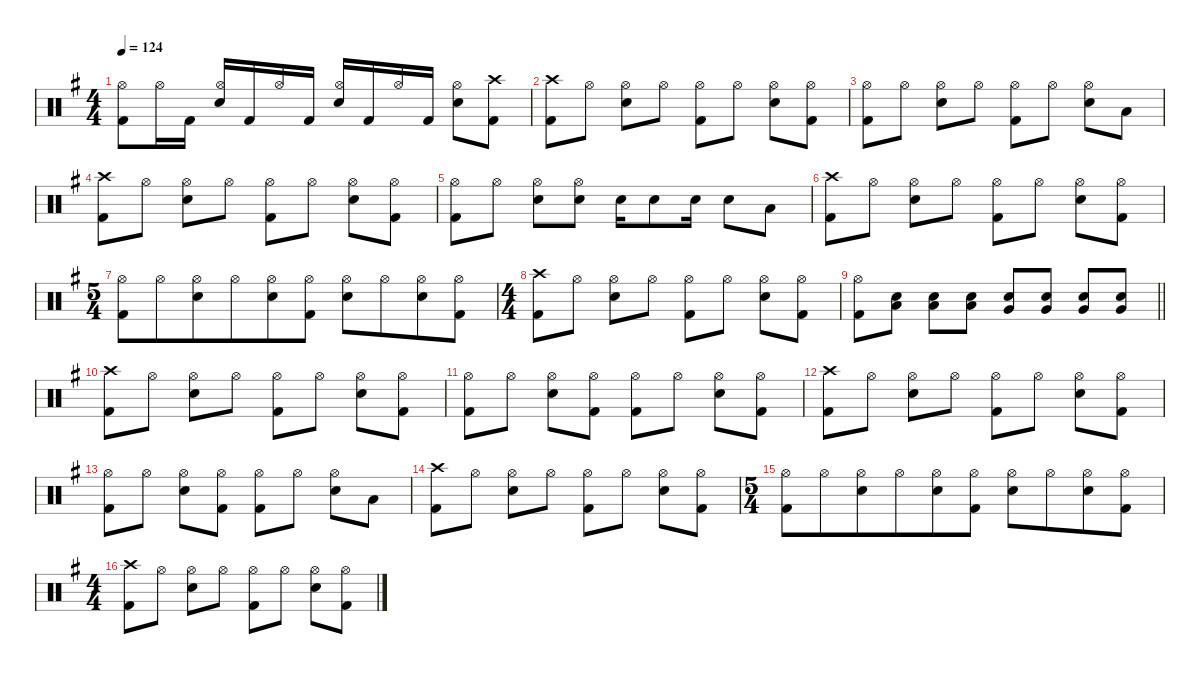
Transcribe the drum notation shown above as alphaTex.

\defaultSystemsLayout 4
\hideDynamics
\bracketExtendMode nobrackets
\singleTrackTrackNamePolicy hidden
\multiTrackTrackNamePolicy hidden
\otherSystemsTrackNameOrientation horizontal
\track ("Drums" "drm.") {defaultSystemsLayout 4 instrument percussion}
\staff {score}
\articulation defaults
\ts (4 4)
\tempo 124
\clef neutral
\ks g
("Hi-Hat (open)"{acc forcenatural} "Kick (hit) 2"{acc forcenatural}).8{dy mf beam Down} "Hi-Hat (open)"{acc forcenatural}.16{beam Down} "Kick (hit) 2"{acc forcenatural}.16{dy ff beam Down} ("Hi-Hat (open)"{acc forcenatural} "Snare (hit) 2"{acc forcenatural}).16{dy mf beam Up} "Kick (hit) 2"{acc forcenatural}.16{dy ff beam Up} "Hi-Hat (open)"{acc forcenatural}.16{dy mf beam Up} "Kick (hit) 2"{acc forcenatural}.16{dy ff beam Up} ("Hi-Hat (open)"{acc forcenatural} "Snare (hit) 2"{acc forcenatural}).16{dy mf beam Up} "Kick (hit) 2"{acc forcenatural}.16{dy ff beam Up} "Hi-Hat (open)"{acc forcenatural}.16{dy mf beam Up} "Kick (hit) 2"{acc forcenatural}.16{dy ff beam Up} ("Hi-Hat (open)"{acc forcenatural} "Snare (hit) 2"{acc forcenatural}).8{dy mf beam Down} ("Crash high (hit)"{acc forcenatural} "Kick (hit) 2"{acc forcenatural}).8{beam Down} |
("Crash high (hit)"{acc forcenatural} "Kick (hit) 2"{acc forcenatural}).8{beam Down} "Hi-Hat (open)"{acc forcenatural}.8{beam Down} ("Hi-Hat (open)"{acc forcenatural} "Snare (hit) 2"{acc forcenatural}).8{beam Down} "Hi-Hat (open)"{acc forcenatural}.8{beam Down} ("Hi-Hat (open)"{acc forcenatural} "Kick (hit) 2"{acc forcenatural}).8{beam Down} "Hi-Hat (open)"{acc forcenatural}.8{beam Down} ("Hi-Hat (open)"{acc forcenatural} "Snare (hit) 2"{acc forcenatural}).8{beam Down} ("Hi-Hat (open)"{acc forcenatural} "Kick (hit) 2"{acc forcenatural}).8{beam Down} |
("Hi-Hat (open)"{acc forcenatural} "Kick (hit) 2"{acc forcenatural}).8{beam Down} "Hi-Hat (open)"{acc forcenatural}.8{beam Down} ("Hi-Hat (open)"{acc forcenatural} "Snare (hit) 2"{acc forcenatural}).8{beam Down} "Hi-Hat (open)"{acc forcenatural}.8{beam Down} ("Hi-Hat (open)"{acc forcenatural} "Kick (hit) 2"{acc forcenatural}).8{beam Down} "Hi-Hat (open)"{acc forcenatural}.8{beam Down} ("Hi-Hat (open)"{acc forcenatural} "Snare (hit) 2"{acc forcenatural}).8{beam Down} "Low Tom (hit)"{acc forcenatural}.8{dy f beam Down} |
("Crash high (hit)"{acc forcenatural} "Kick (hit) 2"{acc forcenatural}).8{dy mf beam Down} "Hi-Hat (open)"{acc forcenatural}.8{beam Down} ("Hi-Hat (open)"{acc forcenatural} "Snare (hit) 2"{acc forcenatural}).8{beam Down} "Hi-Hat (open)"{acc forcenatural}.8{beam Down} ("Hi-Hat (open)"{acc forcenatural} "Kick (hit) 2"{acc forcenatural}).8{beam Down} "Hi-Hat (open)"{acc forcenatural}.8{beam Down} ("Hi-Hat (open)"{acc forcenatural} "Snare (hit) 2"{acc forcenatural}).8{beam Down} ("Hi-Hat (open)"{acc forcenatural} "Kick (hit) 2"{acc forcenatural}).8{beam Down} |
("Hi-Hat (open)"{acc forcenatural} "Kick (hit) 2"{acc forcenatural}).8{beam Down} "Hi-Hat (open)"{acc forcenatural}.8{beam Down} ("Hi-Hat (open)"{acc forcenatural} "Snare (hit) 2"{acc forcenatural}).8{beam Down} ("Hi-Hat (open)"{acc forcenatural} "Snare (hit) 2"{acc forcenatural}).8{beam Down} "Snare (hit) 2"{acc forcenatural}.16{dy ff beam Down} "Snare (hit) 2"{acc forcenatural}.8{beam Down} "Snare (hit) 2"{acc forcenatural}.16{beam Down} "Snare (hit) 2"{acc forcenatural}.8{beam Down} "Low Tom (hit)"{acc forcenatural}.8{dy f beam Down} |
("Crash high (hit)"{acc forcenatural} "Kick (hit) 2"{acc forcenatural}).8{dy mf beam Down} "Hi-Hat (open)"{acc forcenatural}.8{beam Down} ("Hi-Hat (open)"{acc forcenatural} "Snare (hit) 2"{acc forcenatural}).8{beam Down} "Hi-Hat (open)"{acc forcenatural}.8{beam Down} ("Hi-Hat (open)"{acc forcenatural} "Kick (hit) 2"{acc forcenatural}).8{beam Down} "Hi-Hat (open)"{acc forcenatural}.8{beam Down} ("Hi-Hat (open)"{acc forcenatural} "Snare (hit) 2"{acc forcenatural}).8{beam Down} ("Hi-Hat (open)"{acc forcenatural} "Kick (hit) 2"{acc forcenatural}).8{beam Down} |
\ts (5 4)
\beaming (8 6 4)
("Hi-Hat (open)"{acc forcenatural} "Kick (hit) 2"{acc forcenatural}).8{beam Down} "Hi-Hat (open)"{acc forcenatural}.8{beam Down} ("Hi-Hat (open)"{acc forcenatural} "Snare (hit) 2"{acc forcenatural}).8{beam Down} "Hi-Hat (open)"{acc forcenatural}.8{beam Down} ("Hi-Hat (open)"{acc forcenatural} "Snare (hit) 2"{acc forcenatural}).8{beam Down} ("Hi-Hat (open)"{acc forcenatural} "Kick (hit) 2"{acc forcenatural}).8{beam Down} ("Hi-Hat (open)"{acc forcenatural} "Snare (hit) 2"{acc forcenatural}).8{beam Down} "Hi-Hat (open)"{acc forcenatural}.8{beam Down} ("Hi-Hat (open)"{acc forcenatural} "Snare (hit) 2"{acc forcenatural}).8{beam Down} ("Hi-Hat (open)"{acc forcenatural} "Kick (hit) 2"{acc forcenatural}).8{beam Down} |
\ts (4 4)
\beaming (8 2 2 2 2)
("Crash high (hit)"{acc forcenatural} "Kick (hit) 2"{acc forcenatural}).8{beam Down} "Hi-Hat (open)"{acc forcenatural}.8{beam Down} ("Hi-Hat (open)"{acc forcenatural} "Snare (hit) 2"{acc forcenatural}).8{beam Down} "Hi-Hat (open)"{acc forcenatural}.8{beam Down} ("Hi-Hat (open)"{acc forcenatural} "Kick (hit) 2"{acc forcenatural}).8{beam Down} "Hi-Hat (open)"{acc forcenatural}.8{beam Down} ("Hi-Hat (open)"{acc forcenatural} "Snare (hit) 2"{acc forcenatural}).8{beam Down} ("Hi-Hat (open)"{acc forcenatural} "Kick (hit) 2"{acc forcenatural}).8{beam Down} |
\barLineRight lightlight
("Hi-Hat (open)"{acc forcenatural} "Kick (hit) 2"{acc forcenatural}).8{beam Down} ("Low Tom (hit)"{acc forcenatural} "Snare (hit) 2"{acc forcenatural}).8{dy ff beam Down} ("Low Tom (hit)"{acc forcenatural} "Snare (hit) 2"{acc forcenatural}).8{beam Down} ("Low Tom (hit)"{acc forcenatural} "Snare (hit) 2"{acc forcenatural}).8{beam Down} ("Very Low Tom (hit)"{acc forcenatural} "Snare (hit) 2"{acc forcenatural}).8{beam Up} ("Very Low Tom (hit)"{acc forcenatural} "Snare (hit) 2"{acc forcenatural}).8{beam Up} ("Very Low Tom (hit)"{acc forcenatural} "Snare (hit) 2"{acc forcenatural}).8{beam Up} ("Very Low Tom (hit)"{acc forcenatural} "Snare (hit) 2"{acc forcenatural}).8{beam Up} |
("Crash high (hit)"{acc forcenatural} "Kick (hit) 2"{acc forcenatural}).8{dy mf beam Down} "Hi-Hat (open)"{acc forcenatural}.8{beam Down} ("Hi-Hat (open)"{acc forcenatural} "Snare (hit) 2"{acc forcenatural}).8{beam Down} "Hi-Hat (open)"{acc forcenatural}.8{beam Down} ("Hi-Hat (open)"{acc forcenatural} "Kick (hit) 2"{acc forcenatural}).8{beam Down} "Hi-Hat (open)"{acc forcenatural}.8{beam Down} ("Hi-Hat (open)"{acc forcenatural} "Snare (hit) 2"{acc forcenatural}).8{beam Down} ("Hi-Hat (open)"{acc forcenatural} "Kick (hit) 2"{acc forcenatural}).8{beam Down} |
("Hi-Hat (open)"{acc forcenatural} "Kick (hit) 2"{acc forcenatural}).8{beam Down} "Hi-Hat (open)"{acc forcenatural}.8{beam Down} ("Hi-Hat (open)"{acc forcenatural} "Snare (hit) 2"{acc forcenatural}).8{beam Down} ("Hi-Hat (open)"{acc forcenatural} "Kick (hit) 2"{acc forcenatural}).8{beam Down} ("Hi-Hat (open)"{acc forcenatural} "Kick (hit) 2"{acc forcenatural}).8{beam Down} "Hi-Hat (open)"{acc forcenatural}.8{beam Down} ("Hi-Hat (open)"{acc forcenatural} "Snare (hit) 2"{acc forcenatural}).8{beam Down} ("Hi-Hat (open)"{acc forcenatural} "Kick (hit) 2"{acc forcenatural}).8{beam Down} |
("Crash high (hit)"{acc forcenatural} "Kick (hit) 2"{acc forcenatural}).8{beam Down} "Hi-Hat (open)"{acc forcenatural}.8{beam Down} ("Hi-Hat (open)"{acc forcenatural} "Snare (hit) 2"{acc forcenatural}).8{beam Down} "Hi-Hat (open)"{acc forcenatural}.8{beam Down} ("Hi-Hat (open)"{acc forcenatural} "Kick (hit) 2"{acc forcenatural}).8{beam Down} "Hi-Hat (open)"{acc forcenatural}.8{beam Down} ("Hi-Hat (open)"{acc forcenatural} "Snare (hit) 2"{acc forcenatural}).8{beam Down} ("Hi-Hat (open)"{acc forcenatural} "Kick (hit) 2"{acc forcenatural}).8{beam Down} |
("Hi-Hat (open)"{acc forcenatural} "Kick (hit) 2"{acc forcenatural}).8{beam Down} "Hi-Hat (open)"{acc forcenatural}.8{beam Down} ("Hi-Hat (open)"{acc forcenatural} "Snare (hit) 2"{acc forcenatural}).8{beam Down} ("Hi-Hat (open)"{acc forcenatural} "Kick (hit) 2"{acc forcenatural}).8{beam Down} ("Hi-Hat (open)"{acc forcenatural} "Kick (hit) 2"{acc forcenatural}).8{beam Down} "Hi-Hat (open)"{acc forcenatural}.8{beam Down} ("Hi-Hat (open)"{acc forcenatural} "Snare (hit) 2"{acc forcenatural}).8{beam Down} "Low Tom (hit)"{acc forcenatural}.8{dy f beam Down} |
("Crash high (hit)"{acc forcenatural} "Kick (hit) 2"{acc forcenatural}).8{dy mp beam Down} "Hi-Hat (open)"{acc forcenatural}.8{beam Down} ("Hi-Hat (open)"{acc forcenatural} "Snare (hit) 2"{acc forcenatural}).8{beam Down} "Hi-Hat (open)"{acc forcenatural}.8{beam Down} ("Hi-Hat (open)"{acc forcenatural} "Kick (hit) 2"{acc forcenatural}).8{beam Down} "Hi-Hat (open)"{acc forcenatural}.8{beam Down} ("Hi-Hat (open)"{acc forcenatural} "Snare (hit) 2"{acc forcenatural}).8{beam Down} ("Hi-Hat (open)"{acc forcenatural} "Kick (hit) 2"{acc forcenatural}).8{beam Down} |
\ts (5 4)
\beaming (8 6 4)
("Hi-Hat (open)"{acc forcenatural} "Kick (hit) 2"{acc forcenatural}).8{beam Down} "Hi-Hat (open)"{acc forcenatural}.8{beam Down} ("Hi-Hat (open)"{acc forcenatural} "Snare (hit) 2"{acc forcenatural}).8{beam Down} "Hi-Hat (open)"{acc forcenatural}.8{beam Down} ("Hi-Hat (open)"{acc forcenatural} "Snare (hit) 2"{acc forcenatural}).8{beam Down} ("Hi-Hat (open)"{acc forcenatural} "Kick (hit) 2"{acc forcenatural}).8{beam Down} ("Hi-Hat (open)"{acc forcenatural} "Snare (hit) 2"{acc forcenatural}).8{beam Down} "Hi-Hat (open)"{acc forcenatural}.8{beam Down} ("Hi-Hat (open)"{acc forcenatural} "Snare (hit) 2"{acc forcenatural}).8{beam Down} ("Hi-Hat (open)"{acc forcenatural} "Kick (hit) 2"{acc forcenatural}).8{beam Down} |
\ts (4 4)
\beaming (8 2 2 2 2)
("Crash high (hit)"{acc forcenatural} "Kick (hit) 2"{acc forcenatural}).8{beam Down} "Hi-Hat (open)"{acc forcenatural}.8{beam Down} ("Hi-Hat (open)"{acc forcenatural} "Snare (hit) 2"{acc forcenatural}).8{beam Down} "Hi-Hat (open)"{acc forcenatural}.8{beam Down} ("Hi-Hat (open)"{acc forcenatural} "Kick (hit) 2"{acc forcenatural}).8{beam Down} "Hi-Hat (open)"{acc forcenatural}.8{beam Down} ("Hi-Hat (open)"{acc forcenatural} "Snare (hit) 2"{acc forcenatural}).8{beam Down} ("Hi-Hat (open)"{acc forcenatural} "Kick (hit) 2"{acc forcenatural}).8{beam Down}
